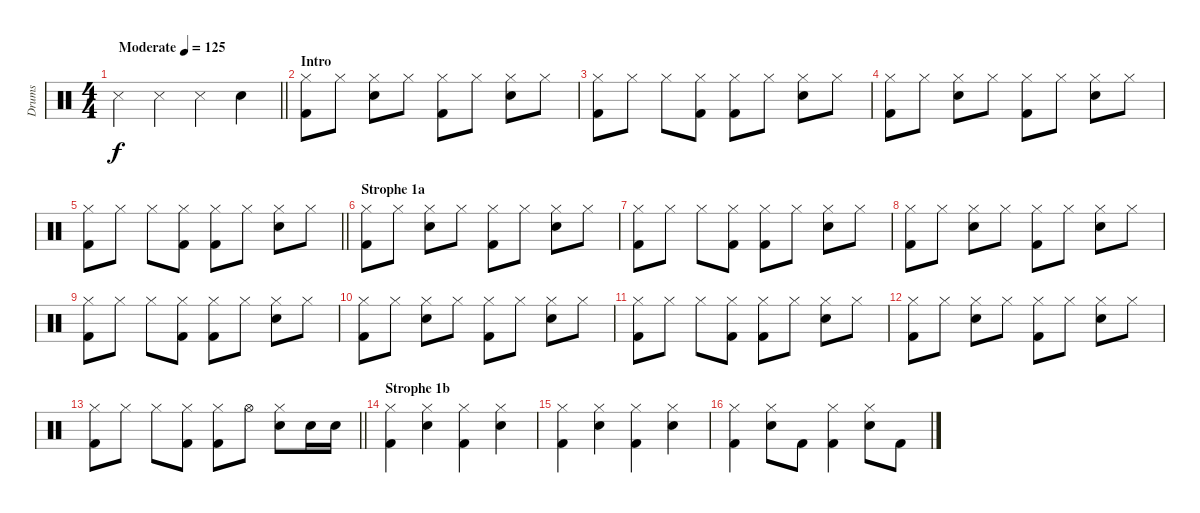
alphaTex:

\track ("Drums" "Drums") {instrument percussion}
\staff {score}
\articulation defaults
\ts (4 4)
\tempo (125 "Moderate")
\clef neutral
\barLineRight lightlight
\ks c "Snare (side stick) 3".4{dy f} "Snare (side stick) 3".4 "Snare (side stick) 3".4 "Snare (hit) 2".4
|
\section ("" "Intro")
("Hi-Hat (closed)" "Kick (hit) 2").8 "Hi-Hat (closed)".8 ("Hi-Hat (closed)" "Snare (hit) 2").8 "Hi-Hat (closed)".8 ("Hi-Hat (closed)" "Kick (hit) 2").8 "Hi-Hat (closed)".8 ("Hi-Hat (closed)" "Snare (hit) 2").8 "Hi-Hat (closed)".8 |
("Hi-Hat (closed)" "Kick (hit) 2").8 "Hi-Hat (closed)".8 "Hi-Hat (closed)".8 ("Hi-Hat (closed)" "Kick (hit) 2").8 ("Hi-Hat (closed)" "Kick (hit) 2").8 "Hi-Hat (closed)".8 ("Hi-Hat (closed)" "Snare (hit) 2").8 "Hi-Hat (closed)".8 |
("Hi-Hat (closed)" "Kick (hit) 2").8 "Hi-Hat (closed)".8 ("Hi-Hat (closed)" "Snare (hit) 2").8 "Hi-Hat (closed)".8 ("Hi-Hat (closed)" "Kick (hit) 2").8 "Hi-Hat (closed)".8 ("Hi-Hat (closed)" "Snare (hit) 2").8 "Hi-Hat (closed)".8 |
\barLineRight lightlight
("Hi-Hat (closed)" "Kick (hit) 2").8 "Hi-Hat (closed)".8 "Hi-Hat (closed)".8 ("Hi-Hat (closed)" "Kick (hit) 2").8 ("Hi-Hat (closed)" "Kick (hit) 2").8 "Hi-Hat (closed)".8 ("Hi-Hat (closed)" "Snare (hit) 2").8 "Hi-Hat (closed)".8 |
\section ("" "Strophe 1a")
("Hi-Hat (closed)" "Kick (hit) 2").8 "Hi-Hat (closed)".8 ("Hi-Hat (closed)" "Snare (hit) 2").8 "Hi-Hat (closed)".8 ("Hi-Hat (closed)" "Kick (hit) 2").8 "Hi-Hat (closed)".8 ("Hi-Hat (closed)" "Snare (hit) 2").8 "Hi-Hat (closed)".8 |
("Hi-Hat (closed)" "Kick (hit) 2").8 "Hi-Hat (closed)".8 "Hi-Hat (closed)".8 ("Hi-Hat (closed)" "Kick (hit) 2").8 ("Hi-Hat (closed)" "Kick (hit) 2").8 "Hi-Hat (closed)".8 ("Hi-Hat (closed)" "Snare (hit) 2").8 "Hi-Hat (closed)".8 |
("Hi-Hat (closed)" "Kick (hit) 2").8 "Hi-Hat (closed)".8 ("Hi-Hat (closed)" "Snare (hit) 2").8 "Hi-Hat (closed)".8 ("Hi-Hat (closed)" "Kick (hit) 2").8 "Hi-Hat (closed)".8 ("Hi-Hat (closed)" "Snare (hit) 2").8 "Hi-Hat (closed)".8 |
("Hi-Hat (closed)" "Kick (hit) 2").8 "Hi-Hat (closed)".8 "Hi-Hat (closed)".8 ("Hi-Hat (closed)" "Kick (hit) 2").8 ("Hi-Hat (closed)" "Kick (hit) 2").8 "Hi-Hat (closed)".8 ("Hi-Hat (closed)" "Snare (hit) 2").8 "Hi-Hat (closed)".8 |
("Hi-Hat (closed)" "Kick (hit) 2").8 "Hi-Hat (closed)".8 ("Hi-Hat (closed)" "Snare (hit) 2").8 "Hi-Hat (closed)".8 ("Hi-Hat (closed)" "Kick (hit) 2").8 "Hi-Hat (closed)".8 ("Hi-Hat (closed)" "Snare (hit) 2").8 "Hi-Hat (closed)".8 |
("Hi-Hat (closed)" "Kick (hit) 2").8 "Hi-Hat (closed)".8 "Hi-Hat (closed)".8 ("Hi-Hat (closed)" "Kick (hit) 2").8 ("Hi-Hat (closed)" "Kick (hit) 2").8 "Hi-Hat (closed)".8 ("Hi-Hat (closed)" "Snare (hit) 2").8 "Hi-Hat (closed)".8 |
("Hi-Hat (closed)" "Kick (hit) 2").8 "Hi-Hat (closed)".8 ("Hi-Hat (closed)" "Snare (hit) 2").8 "Hi-Hat (closed)".8 ("Hi-Hat (closed)" "Kick (hit) 2").8 "Hi-Hat (closed)".8 ("Hi-Hat (closed)" "Snare (hit) 2").8 "Hi-Hat (closed)".8 |
\barLineRight lightlight
("Hi-Hat (closed)" "Kick (hit) 2").8 "Hi-Hat (closed)".8 "Hi-Hat (closed)".8 ("Hi-Hat (closed)" "Kick (hit) 2").8 ("Hi-Hat (closed)" "Kick (hit) 2").8 "Hi-Hat (open)".8 ("Hi-Hat (closed)" "Snare (hit) 2").8 "Snare (hit) 2".16 "Snare (hit) 2".16 |
\section ("" "Strophe 1b")
("Hi-Hat (closed)" "Kick (hit) 2").4 ("Hi-Hat (closed)" "Snare (hit) 2").4 ("Hi-Hat (closed)" "Kick (hit) 2").4 ("Hi-Hat (closed)" "Snare (hit) 2").4 |
("Hi-Hat (closed)" "Kick (hit) 2").4 ("Hi-Hat (closed)" "Snare (hit) 2").4 ("Hi-Hat (closed)" "Kick (hit) 2").4 ("Hi-Hat (closed)" "Snare (hit) 2").4 |
("Hi-Hat (closed)" "Kick (hit) 2").4 ("Hi-Hat (closed)" "Snare (hit) 2").8 "Kick (hit) 2".8 ("Hi-Hat (closed)" "Kick (hit) 2").4 ("Hi-Hat (closed)" "Snare (hit) 2").8 "Kick (hit) 2".8
